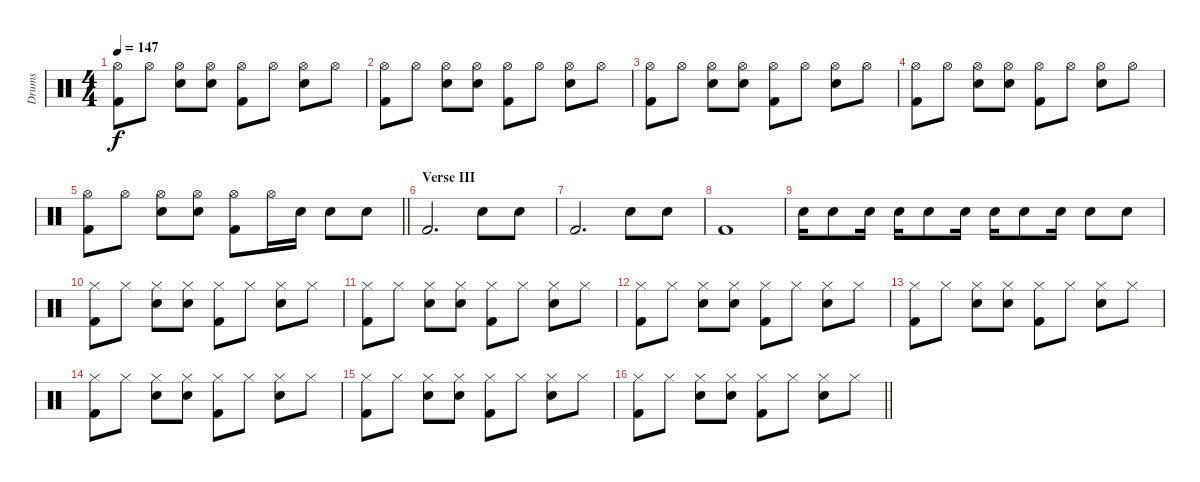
\track ("Drums" "Drums") {instrument percussion}
\staff {score}
\articulation defaults
\ts (4 4)
\tempo 147
\clef neutral
\ks c
("Hi-Hat (open)" "Kick (hit) 2").8{dy f} "Hi-Hat (open)".8 ("Hi-Hat (open)" "Snare (hit) 2").8 ("Hi-Hat (open)" "Snare (hit) 2").8 ("Hi-Hat (open)" "Kick (hit) 2").8 "Hi-Hat (open)".8 ("Hi-Hat (open)" "Snare (hit) 2").8 "Hi-Hat (open)".8 |
("Hi-Hat (open)" "Kick (hit) 2").8 "Hi-Hat (open)".8 ("Hi-Hat (open)" "Snare (hit) 2").8 ("Hi-Hat (open)" "Snare (hit) 2").8 ("Hi-Hat (open)" "Kick (hit) 2").8 "Hi-Hat (open)".8 ("Hi-Hat (open)" "Snare (hit) 2").8 "Hi-Hat (open)".8 |
("Hi-Hat (open)" "Kick (hit) 2").8 "Hi-Hat (open)".8 ("Hi-Hat (open)" "Snare (hit) 2").8 ("Hi-Hat (open)" "Snare (hit) 2").8 ("Hi-Hat (open)" "Kick (hit) 2").8 "Hi-Hat (open)".8 ("Hi-Hat (open)" "Snare (hit) 2").8 "Hi-Hat (open)".8 |
("Hi-Hat (open)" "Kick (hit) 2").8 "Hi-Hat (open)".8 ("Hi-Hat (open)" "Snare (hit) 2").8 ("Hi-Hat (open)" "Snare (hit) 2").8 ("Hi-Hat (open)" "Kick (hit) 2").8 "Hi-Hat (open)".8 ("Hi-Hat (open)" "Snare (hit) 2").8 "Hi-Hat (open)".8 |
\barLineRight lightlight
("Hi-Hat (open)" "Kick (hit) 2").8 "Hi-Hat (open)".8 ("Hi-Hat (open)" "Snare (hit) 2").8 ("Hi-Hat (open)" "Snare (hit) 2").8 ("Hi-Hat (open)" "Kick (hit) 2").8 "Hi-Hat (open)".16 "Snare (hit) 2".16 "Snare (hit) 2".8 "Snare (hit) 2".8 |
\section ("" "Verse III")
"Kick (hit) 2".2{d} "Snare (hit) 2".8 "Snare (hit) 2".8 |
"Kick (hit) 2".2{d} "Snare (hit) 2".8 "Snare (hit) 2".8 |
"Kick (hit) 2".1 |
"Snare (hit) 2".16 "Snare (hit) 2".8 "Snare (hit) 2".16 "Snare (hit) 2".16 "Snare (hit) 2".8 "Snare (hit) 2".16 "Snare (hit) 2".16 "Snare (hit) 2".8 "Snare (hit) 2".16 "Snare (hit) 2".8 "Snare (hit) 2".8 |
("Hi-Hat (closed)" "Kick (hit) 2").8 "Hi-Hat (closed)".8 ("Hi-Hat (closed)" "Snare (hit) 2").8 ("Hi-Hat (closed)" "Snare (hit) 2").8 ("Hi-Hat (closed)" "Kick (hit) 2").8 "Hi-Hat (closed)".8 ("Hi-Hat (closed)" "Snare (hit) 2").8 "Hi-Hat (closed)".8 |
("Hi-Hat (closed)" "Kick (hit) 2").8 "Hi-Hat (closed)".8 ("Hi-Hat (closed)" "Snare (hit) 2").8 ("Hi-Hat (closed)" "Snare (hit) 2").8 ("Hi-Hat (closed)" "Kick (hit) 2").8 "Hi-Hat (closed)".8 ("Hi-Hat (closed)" "Snare (hit) 2").8 "Hi-Hat (closed)".8 |
("Hi-Hat (closed)" "Kick (hit) 2").8 "Hi-Hat (closed)".8 ("Hi-Hat (closed)" "Snare (hit) 2").8 ("Hi-Hat (closed)" "Snare (hit) 2").8 ("Hi-Hat (closed)" "Kick (hit) 2").8 "Hi-Hat (closed)".8 ("Hi-Hat (closed)" "Snare (hit) 2").8 "Hi-Hat (closed)".8 |
("Hi-Hat (closed)" "Kick (hit) 2").8 "Hi-Hat (closed)".8 ("Hi-Hat (closed)" "Snare (hit) 2").8 ("Hi-Hat (closed)" "Snare (hit) 2").8 ("Hi-Hat (closed)" "Kick (hit) 2").8 "Hi-Hat (closed)".8 ("Hi-Hat (closed)" "Snare (hit) 2").8 "Hi-Hat (closed)".8 |
("Hi-Hat (closed)" "Kick (hit) 2").8 "Hi-Hat (closed)".8 ("Hi-Hat (closed)" "Snare (hit) 2").8 ("Hi-Hat (closed)" "Snare (hit) 2").8 ("Hi-Hat (closed)" "Kick (hit) 2").8 "Hi-Hat (closed)".8 ("Hi-Hat (closed)" "Snare (hit) 2").8 "Hi-Hat (closed)".8 |
("Hi-Hat (closed)" "Kick (hit) 2").8 "Hi-Hat (closed)".8 ("Hi-Hat (closed)" "Snare (hit) 2").8 ("Hi-Hat (closed)" "Snare (hit) 2").8 ("Hi-Hat (closed)" "Kick (hit) 2").8 "Hi-Hat (closed)".8 ("Hi-Hat (closed)" "Snare (hit) 2").8 "Hi-Hat (closed)".8 |
\barLineRight lightlight
("Hi-Hat (closed)" "Kick (hit) 2").8 "Hi-Hat (closed)".8 ("Hi-Hat (closed)" "Snare (hit) 2").8 ("Hi-Hat (closed)" "Snare (hit) 2").8 ("Hi-Hat (closed)" "Kick (hit) 2").8 "Hi-Hat (closed)".8 ("Hi-Hat (closed)" "Snare (hit) 2").8 "Hi-Hat (closed)".8
